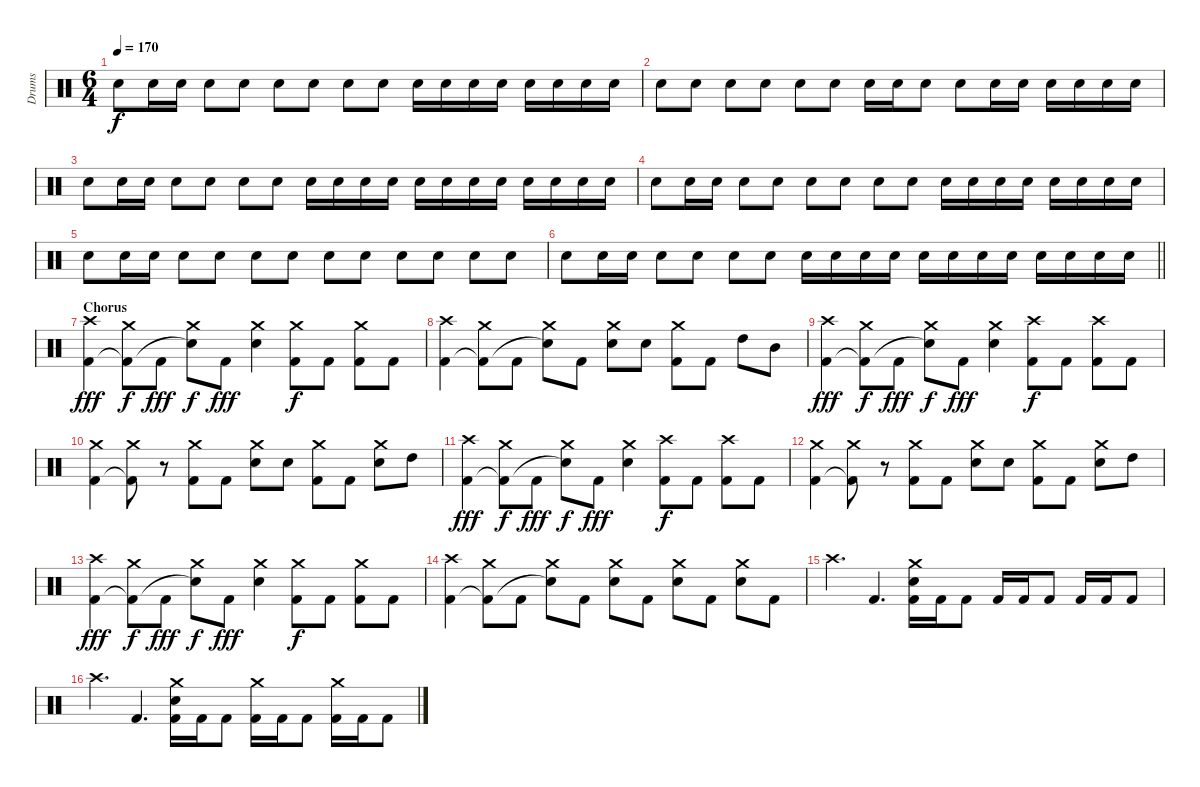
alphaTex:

\track ("Drums" "Drums") {instrument percussion}
\staff {score}
\articulation defaults
\ts (6 4)
\tempo 170
\clef neutral
\ks c "Electric Snare (hit)".8{dy f} "Electric Snare (hit)".16 "Electric Snare (hit)".16 "Electric Snare (hit)".8 "Electric Snare (hit)".8 "Electric Snare (hit)".8 "Electric Snare (hit)".8 "Electric Snare (hit)".8 "Electric Snare (hit)".8 "Electric Snare (hit)".16 "Electric Snare (hit)".16 "Electric Snare (hit)".16 "Electric Snare (hit)".16 "Electric Snare (hit)".16 "Electric Snare (hit)".16 "Electric Snare (hit)".16 "Electric Snare (hit)".16
|
"Electric Snare (hit)".8 "Electric Snare (hit)".8 "Electric Snare (hit)".8 "Electric Snare (hit)".8 "Electric Snare (hit)".8 "Electric Snare (hit)".8 "Electric Snare (hit)".16 "Electric Snare (hit)".16 "Electric Snare (hit)".8 "Electric Snare (hit)".8 "Electric Snare (hit)".16 "Electric Snare (hit)".16 "Electric Snare (hit)".16 "Electric Snare (hit)".16 "Electric Snare (hit)".16 "Electric Snare (hit)".16 |
"Electric Snare (hit)".8 "Electric Snare (hit)".16 "Electric Snare (hit)".16 "Electric Snare (hit)".8 "Electric Snare (hit)".8 "Electric Snare (hit)".8 "Electric Snare (hit)".8 "Electric Snare (hit)".16 "Electric Snare (hit)".16 "Electric Snare (hit)".16 "Electric Snare (hit)".16 "Electric Snare (hit)".16 "Electric Snare (hit)".16 "Electric Snare (hit)".16 "Electric Snare (hit)".16 "Electric Snare (hit)".16 "Electric Snare (hit)".16 "Electric Snare (hit)".16 "Electric Snare (hit)".16 |
"Electric Snare (hit)".8 "Electric Snare (hit)".16 "Electric Snare (hit)".16 "Electric Snare (hit)".8 "Electric Snare (hit)".8 "Electric Snare (hit)".8 "Electric Snare (hit)".8 "Electric Snare (hit)".8 "Electric Snare (hit)".8 "Electric Snare (hit)".16 "Electric Snare (hit)".16 "Electric Snare (hit)".16 "Electric Snare (hit)".16 "Electric Snare (hit)".16 "Electric Snare (hit)".16 "Electric Snare (hit)".16 "Electric Snare (hit)".16 |
"Electric Snare (hit)".8 "Electric Snare (hit)".16 "Electric Snare (hit)".16 "Electric Snare (hit)".8 "Electric Snare (hit)".8 "Electric Snare (hit)".8 "Electric Snare (hit)".8 "Electric Snare (hit)".8 "Electric Snare (hit)".8 "Electric Snare (hit)".8 "Electric Snare (hit)".8 "Electric Snare (hit)".8 "Electric Snare (hit)".8 |
\barLineRight lightlight "Electric Snare (hit)".8 "Electric Snare (hit)".16 "Electric Snare (hit)".16 "Electric Snare (hit)".8 "Electric Snare (hit)".8 "Electric Snare (hit)".8 "Electric Snare (hit)".8 "Electric Snare (hit)".16{volume 13} "Electric Snare (hit)".16 "Electric Snare (hit)".16 "Electric Snare (hit)".16 "Electric Snare (hit)".16 "Electric Snare (hit)".16 "Electric Snare (hit)".16 "Electric Snare (hit)".16 "Electric Snare (hit)".16 "Electric Snare (hit)".16 "Electric Snare (hit)".16 "Electric Snare (hit)".16
|
\section ("" "Chorus")
("Crash high (hit)" "Kick (hit) 2").4{dy fff} ("Crash medium (hit)" "Kick (hit) 2"{t}).8{dy f} "Kick (hit) 2".8{dy fff} ("Crash medium (hit)" "Snare (hit)"{t}).8{dy f} "Kick (hit) 2".8{dy fff} ("Crash medium (hit)" "Electric Snare (hit)").4 ("Crash medium (hit)" "Kick (hit) 2").8{dy f} "Kick (hit) 2".8 ("Crash medium (hit)" "Kick (hit) 2").8 "Kick (hit) 2".8 |
("Crash high (hit)" "Kick (hit) 2").4 ("Crash medium (hit)" "Kick (hit) 2"{t}).8 "Kick (hit) 2".8 ("Crash medium (hit)" "Snare (hit)"{t}).8 "Kick (hit) 2".8 ("Crash medium (hit)" "Electric Snare (hit)").8 "Electric Snare (hit)".8 ("Crash medium (hit)" "Kick (hit) 2").8 "Kick (hit) 2".8 "High Tom (hit)".8 "Mid Tom (hit)".8 |
("Crash high (hit)" "Kick (hit) 2").4{dy fff} ("Crash medium (hit)" "Kick (hit) 2"{t}).8{dy f} "Kick (hit) 2".8{dy fff} ("Crash medium (hit)" "Snare (hit)"{t}).8{dy f} "Kick (hit) 2".8{dy fff} ("Crash medium (hit)" "Electric Snare (hit)").4 ("Crash high (hit)" "Kick (hit) 2").8{dy f} "Kick (hit) 2".8 ("Crash high (hit)" "Kick (hit) 2").8 "Kick (hit) 2".8 |
("Crash medium (hit)" "Kick (hit) 2").4 ("Crash medium (hit)" "Kick (hit) 2"{t}).8 r.8 ("Crash medium (hit)" "Kick (hit) 2").8 "Kick (hit) 2".8 ("Crash medium (hit)" "Electric Snare (hit)").8 "Electric Snare (hit)".8 ("Crash medium (hit)" "Kick (hit) 2").8 "Kick (hit) 2".8 ("Crash medium (hit)" "Electric Snare (hit)").8 "High Tom (hit)".8 |
("Crash high (hit)" "Kick (hit) 2").4{dy fff} ("Crash medium (hit)" "Kick (hit) 2"{t}).8{dy f} "Kick (hit) 2".8{dy fff} ("Crash medium (hit)" "Snare (hit)"{t}).8{dy f} "Kick (hit) 2".8{dy fff} ("Crash medium (hit)" "Electric Snare (hit)").4 ("Crash high (hit)" "Kick (hit) 2").8{dy f} "Kick (hit) 2".8 ("Crash high (hit)" "Kick (hit) 2").8 "Kick (hit) 2".8 |
("Crash medium (hit)" "Kick (hit) 2").4 ("Crash medium (hit)" "Kick (hit) 2"{t}).8 r.8 ("Crash medium (hit)" "Kick (hit) 2").8 "Kick (hit) 2".8 ("Crash medium (hit)" "Electric Snare (hit)").8 "Electric Snare (hit)".8 ("Crash medium (hit)" "Kick (hit) 2").8 "Kick (hit) 2".8 ("Crash medium (hit)" "Electric Snare (hit)").8 "High Tom (hit)".8 |
("Crash high (hit)" "Kick (hit) 2").4{dy fff} ("Crash medium (hit)" "Kick (hit) 2"{t}).8{dy f} "Kick (hit) 2".8{dy fff} ("Crash medium (hit)" "Snare (hit)"{t}).8{dy f} "Kick (hit) 2".8{dy fff} ("Crash medium (hit)" "Electric Snare (hit)").4 ("Crash medium (hit)" "Kick (hit) 2").8{dy f} "Kick (hit) 2".8 ("Crash medium (hit)" "Kick (hit) 2").8 "Kick (hit) 2".8 |
("Crash high (hit)" "Kick (hit) 2").4 ("Crash medium (hit)" "Kick (hit) 2"{t}).8 "Kick (hit) 2".8 ("Crash medium (hit)" "Snare (hit)"{t}).8 "Kick (hit) 2".8 ("Crash medium (hit)" "Electric Snare (hit)").8 "Kick (hit) 2".8 ("Crash medium (hit)" "Electric Snare (hit)").8 "Kick (hit) 2".8 ("Crash medium (hit)" "Electric Snare (hit)").8 "Kick (hit) 2".8 |
"Crash high (hit)".4{d} "Kick (hit) 2".4{d} ("Crash medium (hit)" "Electric Snare (hit)" "Kick (hit) 2").16 "Kick (hit) 2".16 "Kick (hit) 2".8 "Kick (hit) 2".16 "Kick (hit) 2".16 "Kick (hit) 2".8 "Kick (hit) 2".16 "Kick (hit) 2".16 "Kick (hit) 2".8 |
"Crash high (hit)".4{d} "Kick (hit) 2".4{d} ("Crash medium (hit)" "Electric Snare (hit)" "Kick (hit) 2").16 "Kick (hit) 2".16 "Kick (hit) 2".8 ("Crash medium (hit)" "Kick (hit) 2").16 "Kick (hit) 2".16 "Kick (hit) 2".8 ("Crash medium (hit)" "Kick (hit) 2").16 "Kick (hit) 2".16 "Kick (hit) 2".8
